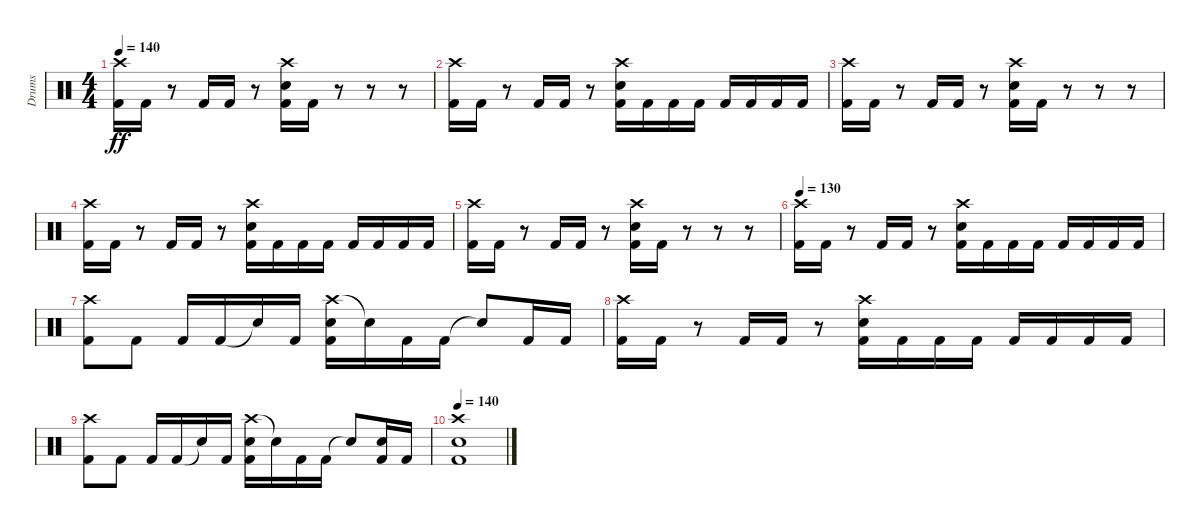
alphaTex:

\track ("Drums" "Drums") {instrument percussion}
\staff {score}
\articulation defaults
\ts (4 4)
\tempo 140
\clef neutral
\ks c
("Crash high (hit)" "Kick (hit) 2").16{dy ff} "Kick (hit) 2".16 r.8 "Kick (hit) 2".16 "Kick (hit) 2".16 r.8 ("Crash high (hit)" "Snare (hit) 2" "Kick (hit) 2").16 "Kick (hit) 2".16 r.8 r.8 r.8 |
("Crash high (hit)" "Kick (hit) 2").16 "Kick (hit) 2".16 r.8 "Kick (hit) 2".16 "Kick (hit) 2".16 r.8 ("Crash high (hit)" "Snare (hit) 2" "Kick (hit) 2").16 "Kick (hit) 2".16 "Kick (hit) 2".16 "Kick (hit) 2".16 "Kick (hit) 2".16 "Kick (hit) 2".16 "Kick (hit) 2".16 "Kick (hit) 2".16 |
("Crash high (hit)" "Kick (hit) 2").16 "Kick (hit) 2".16 r.8 "Kick (hit) 2".16 "Kick (hit) 2".16 r.8 ("Crash high (hit)" "Snare (hit) 2" "Kick (hit) 2").16 "Kick (hit) 2".16 r.8 r.8 r.8 |
("Crash high (hit)" "Kick (hit) 2").16 "Kick (hit) 2".16 r.8 "Kick (hit) 2".16 "Kick (hit) 2".16 r.8 ("Crash high (hit)" "Snare (hit) 2" "Kick (hit) 2").16 "Kick (hit) 2".16 "Kick (hit) 2".16 "Kick (hit) 2".16 "Kick (hit) 2".16 "Kick (hit) 2".16 "Kick (hit) 2".16 "Kick (hit) 2".16 |
("Crash high (hit)" "Kick (hit) 2").16 "Kick (hit) 2".16 r.8 "Kick (hit) 2".16 "Kick (hit) 2".16 r.8 ("Crash high (hit)" "Snare (hit) 2" "Kick (hit) 2").16 "Kick (hit) 2".16 r.8 r.8 r.8 |
\tempo 130
("Crash high (hit)" "Kick (hit) 2").16 "Kick (hit) 2".16 r.8 "Kick (hit) 2".16 "Kick (hit) 2".16 r.8 ("Crash high (hit)" "Snare (hit) 2" "Kick (hit) 2").16 "Kick (hit) 2".16 "Kick (hit) 2".16 "Kick (hit) 2".16 "Kick (hit) 2".16 "Kick (hit) 2".16 "Kick (hit) 2".16 "Kick (hit) 2".16 |
("Crash high (hit)" "Kick (hit) 2").8 "Kick (hit) 2".8 "Kick (hit) 2".16 "Kick (hit) 2".16 "Snare (hit)"{t}.16 "Kick (hit) 2".16 ("Crash high (hit)" "Snare (hit) 2" "Kick (hit) 2").16 "Snare (hit)"{t}.16 "Kick (hit) 2".16 "Kick (hit) 2".16 "Snare (hit)"{t}.8 "Kick (hit) 2".16 "Kick (hit) 2".16 |
("Crash high (hit)" "Kick (hit) 2").16 "Kick (hit) 2".16 r.8 "Kick (hit) 2".16 "Kick (hit) 2".16 r.8 ("Crash high (hit)" "Snare (hit) 2" "Kick (hit) 2").16 "Kick (hit) 2".16 "Kick (hit) 2".16 "Kick (hit) 2".16 "Kick (hit) 2".16 "Kick (hit) 2".16 "Kick (hit) 2".16 "Kick (hit) 2".16 |
("Crash high (hit)" "Kick (hit) 2").8 "Kick (hit) 2".8 "Kick (hit) 2".16 "Kick (hit) 2".16 "Snare (hit)"{t}.16 "Kick (hit) 2".16 ("Crash high (hit)" "Snare (hit) 2" "Kick (hit) 2").16 "Snare (hit)"{t}.16 "Kick (hit) 2".16 "Kick (hit) 2".16 "Snare (hit)"{t}.8 ("Snare (hit) 2" "Kick (hit) 2").16 "Kick (hit) 2".16 |
\tempo 140
("Crash high (hit)" "Snare (hit) 2" "Kick (hit) 2").1
